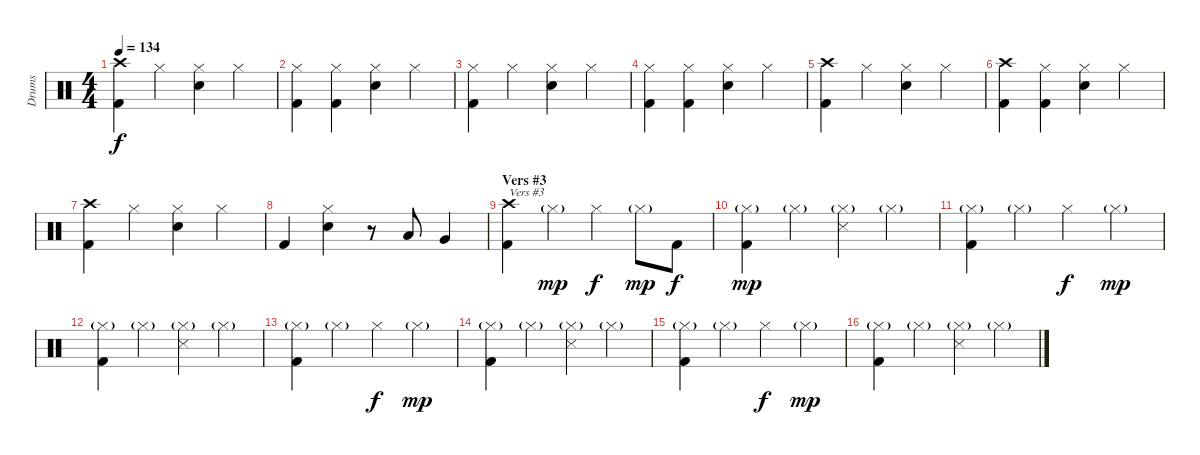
\track ("Drums" "Drums") {instrument percussion}
\staff {score}
\articulation defaults
\ts (4 4)
\tempo 134
\clef neutral
\ks c
("Crash high (hit)" "Kick (hit) 2").4{dy f} "Hi-Hat (closed)".4 ("Hi-Hat (closed)" "Electric Snare (hit)").4 "Hi-Hat (closed)".4 |
("Hi-Hat (closed)" "Kick (hit) 2").4 ("Hi-Hat (closed)" "Kick (hit) 2").4 ("Hi-Hat (closed)" "Electric Snare (hit)").4 "Hi-Hat (closed)".4 |
("Hi-Hat (closed)" "Kick (hit) 2").4 "Hi-Hat (closed)".4 ("Hi-Hat (closed)" "Electric Snare (hit)").4 "Hi-Hat (closed)".4 |
("Hi-Hat (closed)" "Kick (hit) 2").4 ("Hi-Hat (closed)" "Kick (hit) 2").4 ("Hi-Hat (closed)" "Electric Snare (hit)").4 "Hi-Hat (closed)".4 |
("Crash high (hit)" "Kick (hit) 2").4 "Hi-Hat (closed)".4 ("Hi-Hat (closed)" "Electric Snare (hit)").4 "Hi-Hat (closed)".4 |
("Crash high (hit)" "Kick (hit) 2").4 ("Hi-Hat (closed)" "Kick (hit) 2").4 ("Hi-Hat (closed)" "Electric Snare (hit)").4 "Hi-Hat (closed)".4 |
("Crash high (hit)" "Kick (hit) 2").4 "Hi-Hat (closed)".4 ("Hi-Hat (closed)" "Electric Snare (hit)").4 "Hi-Hat (closed)".4 |
"Kick (hit) 2".4 ("Hi-Hat (closed)" "Electric Snare (hit)").4 r.8 "Low Tom (hit)".8 "Very Low Tom (hit)".4 |
\section ("" "Vers #3")
("Crash high (hit)" "Kick (hit) 2").4{txt "Vers #3"} "Hi-Hat (closed)"{g}.4{dy mp} "Hi-Hat (closed)".4{dy f} "Hi-Hat (closed)"{g}.8{dy mp} "Kick (hit) 2".8{dy f} |
("Hi-Hat (closed)"{g} "Kick (hit) 2").4{dy mp} "Hi-Hat (closed)"{g}.4 ("Hi-Hat (closed)"{g} "Snare (side stick) 3").4 "Hi-Hat (closed)"{g}.4 |
("Hi-Hat (closed)"{g} "Kick (hit) 2").4 "Hi-Hat (closed)"{g}.4 "Hi-Hat (closed)".4{dy f} "Hi-Hat (closed)"{g}.4{dy mp} |
("Hi-Hat (closed)"{g} "Kick (hit) 2").4 "Hi-Hat (closed)"{g}.4 ("Hi-Hat (closed)"{g} "Snare (side stick) 3").4 "Hi-Hat (closed)"{g}.4 |
("Hi-Hat (closed)"{g} "Kick (hit) 2").4 "Hi-Hat (closed)"{g}.4 "Hi-Hat (closed)".4{dy f} "Hi-Hat (closed)"{g}.4{dy mp} |
("Hi-Hat (closed)"{g} "Kick (hit) 2").4 "Hi-Hat (closed)"{g}.4 ("Hi-Hat (closed)"{g} "Snare (side stick) 3").4 "Hi-Hat (closed)"{g}.4 |
("Hi-Hat (closed)"{g} "Kick (hit) 2").4 "Hi-Hat (closed)"{g}.4 "Hi-Hat (closed)".4{dy f} "Hi-Hat (closed)"{g}.4{dy mp} |
("Hi-Hat (closed)"{g} "Kick (hit) 2").4 "Hi-Hat (closed)"{g}.4 ("Hi-Hat (closed)"{g} "Snare (side stick) 3").4 "Hi-Hat (closed)"{g}.4
